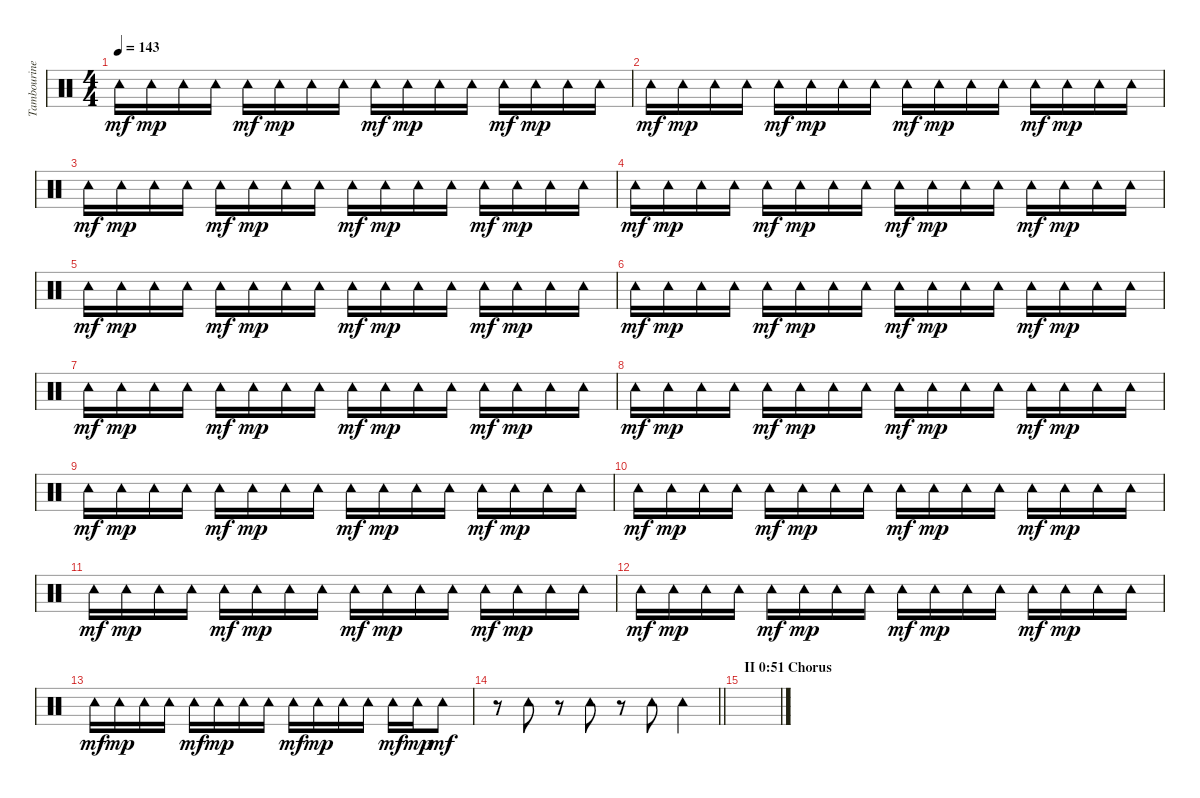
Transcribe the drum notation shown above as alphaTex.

\track ("Tambourine ( I Verse + IV Solo)" "Tambourine") {instrument percussion}
\staff {score}
\articulation defaults
\ts (4 4)
\tempo 143
\clef neutral
\ks c "Tambourine (hit)".16{dy mf} "Tambourine (hit)".16{dy mp} "Tambourine (hit)".16 "Tambourine (hit)".16 "Tambourine (hit)".16{dy mf} "Tambourine (hit)".16{dy mp} "Tambourine (hit)".16 "Tambourine (hit)".16 "Tambourine (hit)".16{dy mf} "Tambourine (hit)".16{dy mp} "Tambourine (hit)".16 "Tambourine (hit)".16 "Tambourine (hit)".16{dy mf} "Tambourine (hit)".16{dy mp} "Tambourine (hit)".16 "Tambourine (hit)".16
|
"Tambourine (hit)".16{dy mf} "Tambourine (hit)".16{dy mp} "Tambourine (hit)".16 "Tambourine (hit)".16 "Tambourine (hit)".16{dy mf} "Tambourine (hit)".16{dy mp} "Tambourine (hit)".16 "Tambourine (hit)".16 "Tambourine (hit)".16{dy mf} "Tambourine (hit)".16{dy mp} "Tambourine (hit)".16 "Tambourine (hit)".16 "Tambourine (hit)".16{dy mf} "Tambourine (hit)".16{dy mp} "Tambourine (hit)".16 "Tambourine (hit)".16 |
"Tambourine (hit)".16{dy mf} "Tambourine (hit)".16{dy mp} "Tambourine (hit)".16 "Tambourine (hit)".16 "Tambourine (hit)".16{dy mf} "Tambourine (hit)".16{dy mp} "Tambourine (hit)".16 "Tambourine (hit)".16 "Tambourine (hit)".16{dy mf} "Tambourine (hit)".16{dy mp} "Tambourine (hit)".16 "Tambourine (hit)".16 "Tambourine (hit)".16{dy mf} "Tambourine (hit)".16{dy mp} "Tambourine (hit)".16 "Tambourine (hit)".16 |
"Tambourine (hit)".16{dy mf} "Tambourine (hit)".16{dy mp} "Tambourine (hit)".16 "Tambourine (hit)".16 "Tambourine (hit)".16{dy mf} "Tambourine (hit)".16{dy mp} "Tambourine (hit)".16 "Tambourine (hit)".16 "Tambourine (hit)".16{dy mf} "Tambourine (hit)".16{dy mp} "Tambourine (hit)".16 "Tambourine (hit)".16 "Tambourine (hit)".16{dy mf} "Tambourine (hit)".16{dy mp} "Tambourine (hit)".16 "Tambourine (hit)".16 |
"Tambourine (hit)".16{dy mf} "Tambourine (hit)".16{dy mp} "Tambourine (hit)".16 "Tambourine (hit)".16 "Tambourine (hit)".16{dy mf} "Tambourine (hit)".16{dy mp} "Tambourine (hit)".16 "Tambourine (hit)".16 "Tambourine (hit)".16{dy mf} "Tambourine (hit)".16{dy mp} "Tambourine (hit)".16 "Tambourine (hit)".16 "Tambourine (hit)".16{dy mf} "Tambourine (hit)".16{dy mp} "Tambourine (hit)".16 "Tambourine (hit)".16 |
"Tambourine (hit)".16{dy mf} "Tambourine (hit)".16{dy mp} "Tambourine (hit)".16 "Tambourine (hit)".16 "Tambourine (hit)".16{dy mf} "Tambourine (hit)".16{dy mp} "Tambourine (hit)".16 "Tambourine (hit)".16 "Tambourine (hit)".16{dy mf} "Tambourine (hit)".16{dy mp} "Tambourine (hit)".16 "Tambourine (hit)".16 "Tambourine (hit)".16{dy mf} "Tambourine (hit)".16{dy mp} "Tambourine (hit)".16 "Tambourine (hit)".16 |
"Tambourine (hit)".16{dy mf} "Tambourine (hit)".16{dy mp} "Tambourine (hit)".16 "Tambourine (hit)".16 "Tambourine (hit)".16{dy mf} "Tambourine (hit)".16{dy mp} "Tambourine (hit)".16 "Tambourine (hit)".16 "Tambourine (hit)".16{dy mf} "Tambourine (hit)".16{dy mp} "Tambourine (hit)".16 "Tambourine (hit)".16 "Tambourine (hit)".16{dy mf} "Tambourine (hit)".16{dy mp} "Tambourine (hit)".16 "Tambourine (hit)".16 |
"Tambourine (hit)".16{dy mf} "Tambourine (hit)".16{dy mp} "Tambourine (hit)".16 "Tambourine (hit)".16 "Tambourine (hit)".16{dy mf} "Tambourine (hit)".16{dy mp} "Tambourine (hit)".16 "Tambourine (hit)".16 "Tambourine (hit)".16{dy mf} "Tambourine (hit)".16{dy mp} "Tambourine (hit)".16 "Tambourine (hit)".16 "Tambourine (hit)".16{dy mf} "Tambourine (hit)".16{dy mp} "Tambourine (hit)".16 "Tambourine (hit)".16 |
"Tambourine (hit)".16{dy mf} "Tambourine (hit)".16{dy mp} "Tambourine (hit)".16 "Tambourine (hit)".16 "Tambourine (hit)".16{dy mf} "Tambourine (hit)".16{dy mp} "Tambourine (hit)".16 "Tambourine (hit)".16 "Tambourine (hit)".16{dy mf} "Tambourine (hit)".16{dy mp} "Tambourine (hit)".16 "Tambourine (hit)".16 "Tambourine (hit)".16{dy mf} "Tambourine (hit)".16{dy mp} "Tambourine (hit)".16 "Tambourine (hit)".16 |
"Tambourine (hit)".16{dy mf} "Tambourine (hit)".16{dy mp} "Tambourine (hit)".16 "Tambourine (hit)".16 "Tambourine (hit)".16{dy mf} "Tambourine (hit)".16{dy mp} "Tambourine (hit)".16 "Tambourine (hit)".16 "Tambourine (hit)".16{dy mf} "Tambourine (hit)".16{dy mp} "Tambourine (hit)".16 "Tambourine (hit)".16 "Tambourine (hit)".16{dy mf} "Tambourine (hit)".16{dy mp} "Tambourine (hit)".16 "Tambourine (hit)".16 |
"Tambourine (hit)".16{dy mf} "Tambourine (hit)".16{dy mp} "Tambourine (hit)".16 "Tambourine (hit)".16 "Tambourine (hit)".16{dy mf} "Tambourine (hit)".16{dy mp} "Tambourine (hit)".16 "Tambourine (hit)".16 "Tambourine (hit)".16{dy mf} "Tambourine (hit)".16{dy mp} "Tambourine (hit)".16 "Tambourine (hit)".16 "Tambourine (hit)".16{dy mf} "Tambourine (hit)".16{dy mp} "Tambourine (hit)".16 "Tambourine (hit)".16 |
"Tambourine (hit)".16{dy mf} "Tambourine (hit)".16{dy mp} "Tambourine (hit)".16 "Tambourine (hit)".16 "Tambourine (hit)".16{dy mf} "Tambourine (hit)".16{dy mp} "Tambourine (hit)".16 "Tambourine (hit)".16 "Tambourine (hit)".16{dy mf} "Tambourine (hit)".16{dy mp} "Tambourine (hit)".16 "Tambourine (hit)".16 "Tambourine (hit)".16{dy mf} "Tambourine (hit)".16{dy mp} "Tambourine (hit)".16 "Tambourine (hit)".16 |
"Tambourine (hit)".16{dy mf} "Tambourine (hit)".16{dy mp} "Tambourine (hit)".16 "Tambourine (hit)".16 "Tambourine (hit)".16{dy mf} "Tambourine (hit)".16{dy mp} "Tambourine (hit)".16 "Tambourine (hit)".16 "Tambourine (hit)".16{dy mf} "Tambourine (hit)".16{dy mp} "Tambourine (hit)".16 "Tambourine (hit)".16 "Tambourine (hit)".16{dy mf} "Tambourine (hit)".16{dy mp} "Tambourine (hit)".8{dy mf} |
\barLineRight lightlight
r.8 "Tambourine (hit)".8 r.8 "Tambourine (hit)".8 r.8 "Tambourine (hit)".8 "Tambourine (hit)".4 |
\section ("" "II 0:51 Chorus")
